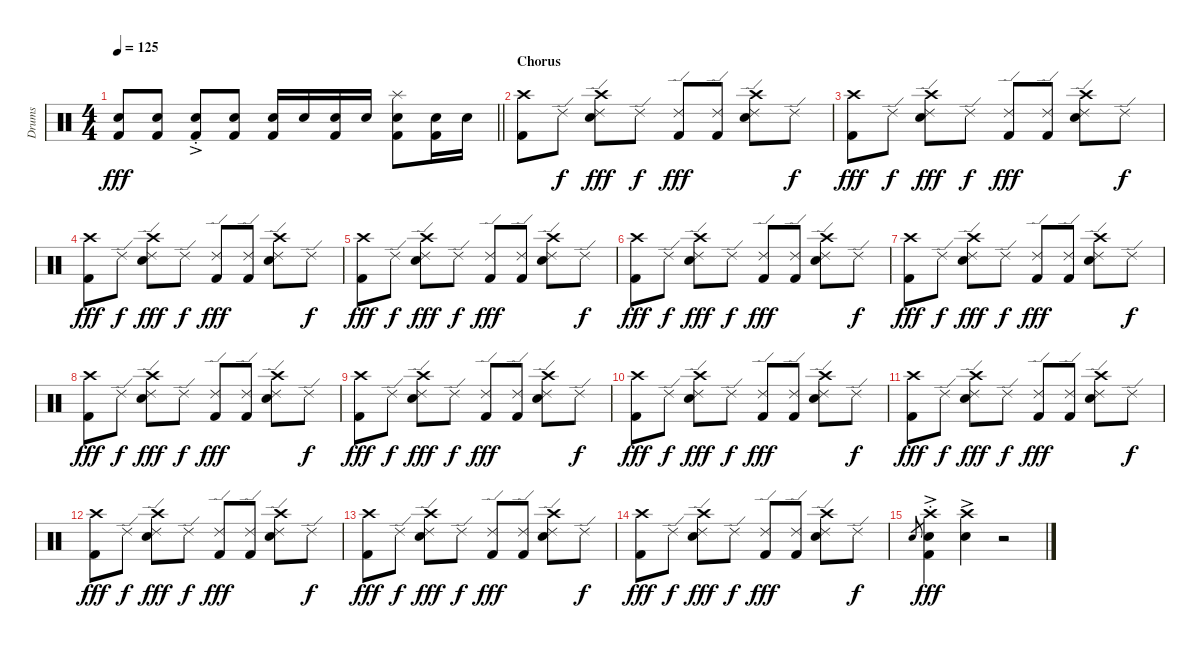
\track ("Drums" "Drums") {instrument percussion}
\staff {score}
\articulation defaults
\ts (4 4)
\tempo 125
\clef neutral
\barLineRight lightlight
\ks c
("Electric Snare (hit)" "Kick (hit) 2").8{dy fff} ("Electric Snare (hit)" "Kick (hit) 2").8 ("Electric Snare (hit)"{ac st} "Kick (hit) 2"{ac st}).8 ("Electric Snare (hit)" "Kick (hit) 2").8 ("Electric Snare (hit)" "Kick (hit) 2").16 "Electric Snare (hit)".16 ("Electric Snare (hit)" "Kick (hit) 2").16 "Electric Snare (hit)".16 ("Splash (hit)" "Electric Snare (hit)" "Kick (hit) 2").8 ("Electric Snare (hit)" "Kick (hit) 2").16 "Electric Snare (hit)".16 |
\section ("" "Chorus")
("Crash high (hit)" "Kick (hit) 2").8 "Ride (edge) 2".8{dy f} ("Ride (edge) 2" "Crash high (hit)" "Electric Snare (hit)").8{dy fff} "Ride (edge) 2".8{dy f} ("Ride (edge) 2" "Kick (hit) 2").8{dy fff} ("Ride (edge) 2" "Kick (hit) 2").8 ("Ride (edge) 2" "Crash high (hit)" "Electric Snare (hit)").8 "Ride (edge) 2".8{dy f} |
("Crash high (hit)" "Kick (hit) 2").8{dy fff} "Ride (edge) 2".8{dy f} ("Ride (edge) 2" "Crash high (hit)" "Electric Snare (hit)").8{dy fff} "Ride (edge) 2".8{dy f} ("Ride (edge) 2" "Kick (hit) 2").8{dy fff} ("Ride (edge) 2" "Kick (hit) 2").8 ("Ride (edge) 2" "Crash high (hit)" "Electric Snare (hit)").8 "Ride (edge) 2".8{dy f} |
("Crash high (hit)" "Kick (hit) 2").8{dy fff} "Ride (edge) 2".8{dy f} ("Ride (edge) 2" "Crash high (hit)" "Electric Snare (hit)").8{dy fff} "Ride (edge) 2".8{dy f} ("Ride (edge) 2" "Kick (hit) 2").8{dy fff} ("Ride (edge) 2" "Kick (hit) 2").8 ("Ride (edge) 2" "Crash high (hit)" "Electric Snare (hit)").8 "Ride (edge) 2".8{dy f} |
("Crash high (hit)" "Kick (hit) 2").8{dy fff} "Ride (edge) 2".8{dy f} ("Ride (edge) 2" "Crash high (hit)" "Electric Snare (hit)").8{dy fff} "Ride (edge) 2".8{dy f} ("Ride (edge) 2" "Kick (hit) 2").8{dy fff} ("Ride (edge) 2" "Kick (hit) 2").8 ("Ride (edge) 2" "Crash high (hit)" "Electric Snare (hit)").8 "Ride (edge) 2".8{dy f} |
("Crash high (hit)" "Kick (hit) 2").8{dy fff} "Ride (edge) 2".8{dy f} ("Ride (edge) 2" "Crash high (hit)" "Electric Snare (hit)").8{dy fff} "Ride (edge) 2".8{dy f} ("Ride (edge) 2" "Kick (hit) 2").8{dy fff} ("Ride (edge) 2" "Kick (hit) 2").8 ("Ride (edge) 2" "Crash high (hit)" "Electric Snare (hit)").8 "Ride (edge) 2".8{dy f} |
("Crash high (hit)" "Kick (hit) 2").8{dy fff} "Ride (edge) 2".8{dy f} ("Ride (edge) 2" "Crash high (hit)" "Electric Snare (hit)").8{dy fff} "Ride (edge) 2".8{dy f} ("Ride (edge) 2" "Kick (hit) 2").8{dy fff} ("Ride (edge) 2" "Kick (hit) 2").8 ("Ride (edge) 2" "Crash high (hit)" "Electric Snare (hit)").8 "Ride (edge) 2".8{dy f} |
("Crash high (hit)" "Kick (hit) 2").8{dy fff} "Ride (edge) 2".8{dy f} ("Ride (edge) 2" "Crash high (hit)" "Electric Snare (hit)").8{dy fff} "Ride (edge) 2".8{dy f} ("Ride (edge) 2" "Kick (hit) 2").8{dy fff} ("Ride (edge) 2" "Kick (hit) 2").8 ("Ride (edge) 2" "Crash high (hit)" "Electric Snare (hit)").8 "Ride (edge) 2".8{dy f} |
("Crash high (hit)" "Kick (hit) 2").8{dy fff} "Ride (edge) 2".8{dy f} ("Ride (edge) 2" "Crash high (hit)" "Electric Snare (hit)").8{dy fff} "Ride (edge) 2".8{dy f} ("Ride (edge) 2" "Kick (hit) 2").8{dy fff} ("Ride (edge) 2" "Kick (hit) 2").8 ("Ride (edge) 2" "Crash high (hit)" "Electric Snare (hit)").8 "Ride (edge) 2".8{dy f} |
("Crash high (hit)" "Kick (hit) 2").8{dy fff} "Ride (edge) 2".8{dy f} ("Ride (edge) 2" "Crash high (hit)" "Electric Snare (hit)").8{dy fff} "Ride (edge) 2".8{dy f} ("Ride (edge) 2" "Kick (hit) 2").8{dy fff} ("Ride (edge) 2" "Kick (hit) 2").8 ("Ride (edge) 2" "Crash high (hit)" "Electric Snare (hit)").8 "Ride (edge) 2".8{dy f} |
("Crash high (hit)" "Kick (hit) 2").8{dy fff} "Ride (edge) 2".8{dy f} ("Ride (edge) 2" "Crash high (hit)" "Electric Snare (hit)").8{dy fff} "Ride (edge) 2".8{dy f} ("Ride (edge) 2" "Kick (hit) 2").8{dy fff} ("Ride (edge) 2" "Kick (hit) 2").8 ("Ride (edge) 2" "Crash high (hit)" "Electric Snare (hit)").8 "Ride (edge) 2".8{dy f} |
("Crash high (hit)" "Kick (hit) 2").8{dy fff} "Ride (edge) 2".8{dy f} ("Ride (edge) 2" "Crash high (hit)" "Electric Snare (hit)").8{dy fff} "Ride (edge) 2".8{dy f} ("Ride (edge) 2" "Kick (hit) 2").8{dy fff} ("Ride (edge) 2" "Kick (hit) 2").8 ("Ride (edge) 2" "Crash high (hit)" "Electric Snare (hit)").8 "Ride (edge) 2".8{dy f} |
("Crash high (hit)" "Kick (hit) 2").8{dy fff} "Ride (edge) 2".8{dy f} ("Ride (edge) 2" "Crash high (hit)" "Electric Snare (hit)").8{dy fff} "Ride (edge) 2".8{dy f} ("Ride (edge) 2" "Kick (hit) 2").8{dy fff} ("Ride (edge) 2" "Kick (hit) 2").8 ("Ride (edge) 2" "Crash high (hit)" "Electric Snare (hit)").8 "Ride (edge) 2".8{dy f} |
("Crash high (hit)" "Kick (hit) 2").8{dy fff} "Ride (edge) 2".8{dy f} ("Ride (edge) 2" "Crash high (hit)" "Electric Snare (hit)").8{dy fff} "Ride (edge) 2".8{dy f} ("Ride (edge) 2" "Kick (hit) 2").8{dy fff} ("Ride (edge) 2" "Kick (hit) 2").8 ("Ride (edge) 2" "Crash high (hit)" "Electric Snare (hit)").8 "Ride (edge) 2".8{dy f} |
"Electric Snare (hit)".8{gr} ("Crash high (hit)"{ac st} "Electric Snare (hit)" "Kick (hit) 2"{ac st}).4{dy fff} ("Crash high (hit)"{ac} "Electric Snare (hit)"{ac}).4 r.2
